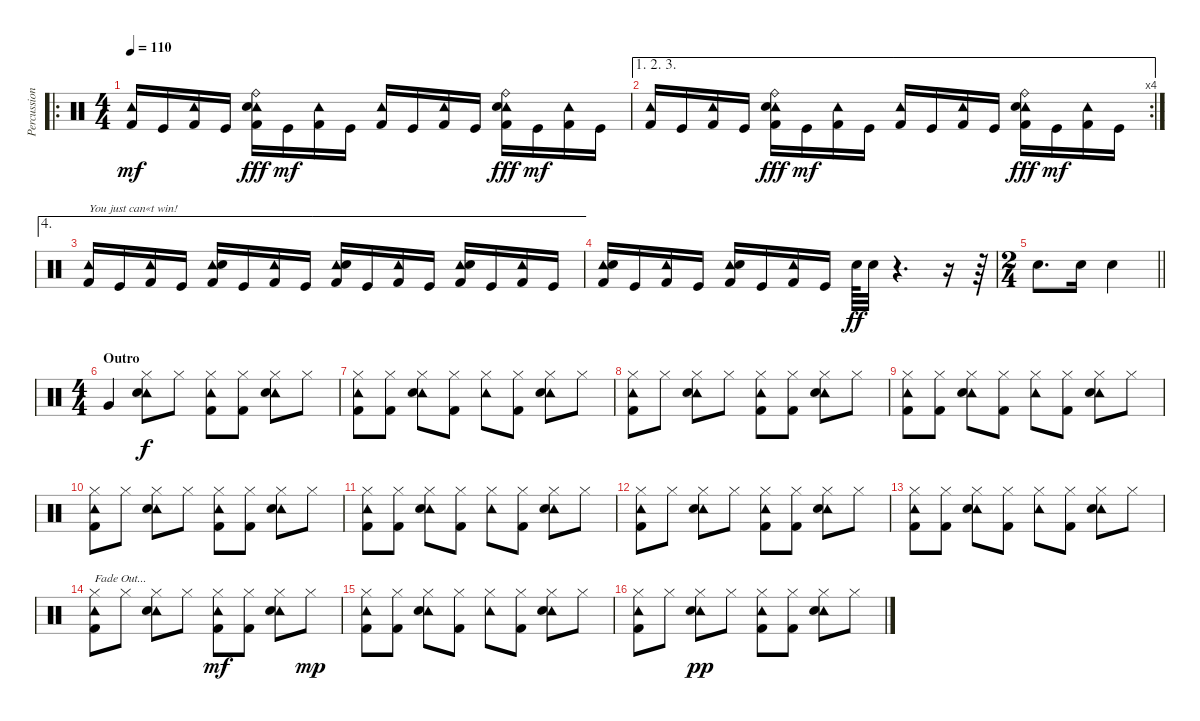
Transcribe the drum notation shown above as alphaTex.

\track ("Percussion" "Percussion") {instrument percussion}
\staff {score}
\articulation defaults
\ro
\ts (4 4)
\tempo 110
\clef neutral
\ks c
("Tambourine (hit)" "Kick (hit) 2").16{dy mf} "Kick (hit)".16 ("Tambourine (hit)" "Kick (hit) 2").16 "Kick (hit)".16 ("Tambourine (hit)" "Snare (hit) 2" "Kick (hit) 2" "Ride (bell)").16{dy fff} "Kick (hit)".16{dy mf} ("Tambourine (hit)" "Kick (hit) 2").16 "Kick (hit)".16 ("Tambourine (hit)" "Kick (hit) 2").16 "Kick (hit)".16 ("Tambourine (hit)" "Kick (hit) 2").16 "Kick (hit)".16 ("Tambourine (hit)" "Snare (hit) 2" "Kick (hit) 2" "Ride (bell)").16{dy fff} "Kick (hit)".16{dy mf} ("Tambourine (hit)" "Kick (hit) 2").16 "Kick (hit)".16 |
\ae (1 2 3)
\rc 4
("Tambourine (hit)" "Kick (hit) 2").16 "Kick (hit)".16 ("Tambourine (hit)" "Kick (hit) 2").16 "Kick (hit)".16 ("Tambourine (hit)" "Snare (hit) 2" "Kick (hit) 2" "Ride (bell)").16{dy fff} "Kick (hit)".16{dy mf} ("Tambourine (hit)" "Kick (hit) 2").16 "Kick (hit)".16 ("Tambourine (hit)" "Kick (hit) 2").16 "Kick (hit)".16 ("Tambourine (hit)" "Kick (hit) 2").16 "Kick (hit)".16 ("Tambourine (hit)" "Snare (hit) 2" "Kick (hit) 2" "Ride (bell)").16{dy fff} "Kick (hit)".16{dy mf} ("Tambourine (hit)" "Kick (hit) 2").16 "Kick (hit)".16 |
\ae 4
("Tambourine (hit)" "Kick (hit) 2").16{txt "You just can«t win!"} "Kick (hit)".16 ("Tambourine (hit)" "Kick (hit) 2").16 "Kick (hit)".16 ("Tambourine (hit)" "Snare (hit) 2" "Kick (hit) 2").16 "Kick (hit)".16 ("Tambourine (hit)" "Kick (hit) 2").16 "Kick (hit)".16 ("Tambourine (hit)" "Snare (hit) 2" "Kick (hit) 2").16 "Kick (hit)".16 ("Tambourine (hit)" "Kick (hit) 2").16 "Kick (hit)".16 ("Tambourine (hit)" "Snare (hit) 2" "Kick (hit) 2").16 "Kick (hit)".16 ("Tambourine (hit)" "Kick (hit) 2").16 "Kick (hit)".16 |
("Tambourine (hit)" "Snare (hit) 2" "Kick (hit) 2").16 "Kick (hit)".16 ("Tambourine (hit)" "Kick (hit) 2").16 "Kick (hit)".16 ("Tambourine (hit)" "Snare (hit) 2" "Kick (hit) 2").16 "Kick (hit)".16 ("Tambourine (hit)" "Kick (hit) 2").16 "Kick (hit)".16 "Snare (hit) 2".64{dy ff} "Snare (hit) 2".32 r.4{d} r.16 r.64 |
\ts (2 4)
\barLineRight lightlight "Snare (hit) 2".8{d} "Snare (hit) 2".16 "Snare (hit) 2".4
|
\ts (4 4)
\section ("" "Outro")
"Very Low Tom (hit)".4 ("Tambourine (hit)" "Hi-Hat (closed)" "Snare (hit) 2").8{dy f} "Hi-Hat (closed)".8 ("Tambourine (hit)" "Hi-Hat (closed)" "Kick (hit) 2").8 ("Hi-Hat (closed)" "Kick (hit) 2").8 ("Tambourine (hit)" "Hi-Hat (closed)" "Snare (hit) 2").8 "Hi-Hat (closed)".8 |
("Tambourine (hit)" "Hi-Hat (closed)" "Kick (hit) 2").8 ("Hi-Hat (closed)" "Kick (hit) 2").8 ("Tambourine (hit)" "Hi-Hat (closed)" "Snare (hit) 2").8 ("Hi-Hat (closed)" "Kick (hit) 2").8 ("Tambourine (hit)" "Hi-Hat (closed)").8 ("Hi-Hat (closed)" "Kick (hit) 2").8 ("Tambourine (hit)" "Hi-Hat (closed)" "Snare (hit) 2").8 "Hi-Hat (closed)".8 |
("Tambourine (hit)" "Hi-Hat (closed)" "Kick (hit) 2").8 "Hi-Hat (closed)".8 ("Tambourine (hit)" "Hi-Hat (closed)" "Snare (hit) 2").8 "Hi-Hat (closed)".8 ("Tambourine (hit)" "Hi-Hat (closed)" "Kick (hit) 2").8 ("Hi-Hat (closed)" "Kick (hit) 2").8 ("Tambourine (hit)" "Hi-Hat (closed)" "Snare (hit) 2").8 "Hi-Hat (closed)".8 |
("Tambourine (hit)" "Hi-Hat (closed)" "Kick (hit) 2").8 ("Hi-Hat (closed)" "Kick (hit) 2").8 ("Tambourine (hit)" "Hi-Hat (closed)" "Snare (hit) 2").8 ("Hi-Hat (closed)" "Kick (hit) 2").8 ("Tambourine (hit)" "Hi-Hat (closed)").8 ("Hi-Hat (closed)" "Kick (hit) 2").8 ("Tambourine (hit)" "Hi-Hat (closed)" "Snare (hit) 2").8 "Hi-Hat (closed)".8 |
("Tambourine (hit)" "Hi-Hat (closed)" "Kick (hit) 2").8 "Hi-Hat (closed)".8 ("Tambourine (hit)" "Hi-Hat (closed)" "Snare (hit) 2").8 "Hi-Hat (closed)".8 ("Tambourine (hit)" "Hi-Hat (closed)" "Kick (hit) 2").8 ("Hi-Hat (closed)" "Kick (hit) 2").8 ("Tambourine (hit)" "Hi-Hat (closed)" "Snare (hit) 2").8 "Hi-Hat (closed)".8 |
("Tambourine (hit)" "Hi-Hat (closed)" "Kick (hit) 2").8 ("Hi-Hat (closed)" "Kick (hit) 2").8 ("Tambourine (hit)" "Hi-Hat (closed)" "Snare (hit) 2").8 ("Hi-Hat (closed)" "Kick (hit) 2").8 ("Tambourine (hit)" "Hi-Hat (closed)").8 ("Hi-Hat (closed)" "Kick (hit) 2").8 ("Tambourine (hit)" "Hi-Hat (closed)" "Snare (hit) 2").8 "Hi-Hat (closed)".8 |
("Tambourine (hit)" "Hi-Hat (closed)" "Kick (hit) 2").8 "Hi-Hat (closed)".8 ("Tambourine (hit)" "Hi-Hat (closed)" "Snare (hit) 2").8 "Hi-Hat (closed)".8 ("Tambourine (hit)" "Hi-Hat (closed)" "Kick (hit) 2").8 ("Hi-Hat (closed)" "Kick (hit) 2").8 ("Tambourine (hit)" "Hi-Hat (closed)" "Snare (hit) 2").8 "Hi-Hat (closed)".8 |
("Tambourine (hit)" "Hi-Hat (closed)" "Kick (hit) 2").8 ("Hi-Hat (closed)" "Kick (hit) 2").8 ("Tambourine (hit)" "Hi-Hat (closed)" "Snare (hit) 2").8 ("Hi-Hat (closed)" "Kick (hit) 2").8 ("Tambourine (hit)" "Hi-Hat (closed)").8 ("Hi-Hat (closed)" "Kick (hit) 2").8 ("Tambourine (hit)" "Hi-Hat (closed)" "Snare (hit) 2").8 "Hi-Hat (closed)".8 |
("Tambourine (hit)" "Hi-Hat (closed)" "Kick (hit) 2").8{txt "Fade Out..."} "Hi-Hat (closed)".8 ("Tambourine (hit)" "Hi-Hat (closed)" "Snare (hit) 2").8 "Hi-Hat (closed)".8 ("Tambourine (hit)" "Hi-Hat (closed)" "Kick (hit) 2").8{dy mf} ("Hi-Hat (closed)" "Kick (hit) 2").8 ("Tambourine (hit)" "Hi-Hat (closed)" "Snare (hit) 2").8 "Hi-Hat (closed)".8{dy mp} |
("Tambourine (hit)" "Hi-Hat (closed)" "Kick (hit) 2").8 ("Hi-Hat (closed)" "Kick (hit) 2").8 ("Tambourine (hit)" "Hi-Hat (closed)" "Snare (hit) 2").8 ("Hi-Hat (closed)" "Kick (hit) 2").8 ("Tambourine (hit)" "Hi-Hat (closed)").8 ("Hi-Hat (closed)" "Kick (hit) 2").8 ("Tambourine (hit)" "Hi-Hat (closed)" "Snare (hit) 2").8 "Hi-Hat (closed)".8 |
("Tambourine (hit)" "Hi-Hat (closed)" "Kick (hit) 2").8 "Hi-Hat (closed)".8 ("Tambourine (hit)" "Hi-Hat (closed)" "Snare (hit) 2").8{dy pp} "Hi-Hat (closed)".8 ("Tambourine (hit)" "Hi-Hat (closed)" "Kick (hit) 2").8 ("Hi-Hat (closed)" "Kick (hit) 2").8 ("Tambourine (hit)" "Hi-Hat (closed)" "Snare (hit) 2").8 "Hi-Hat (closed)".8
